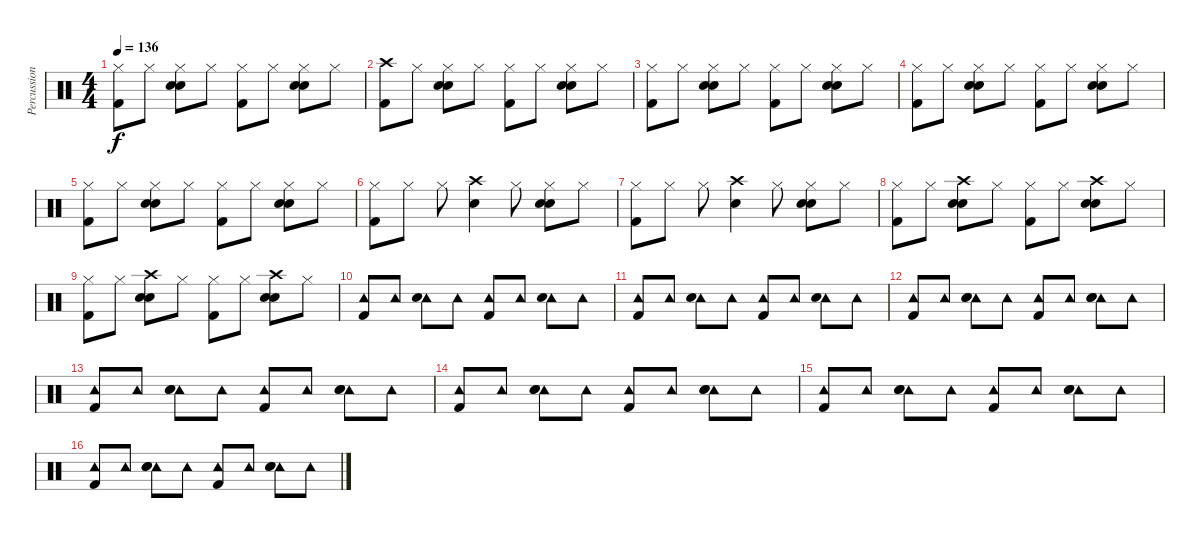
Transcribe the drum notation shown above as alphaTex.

\track ("Percussion" "Percussion") {instrument percussion}
\staff {score}
\articulation defaults
\ts (4 4)
\tempo 136
\clef neutral
\ks c
("Hi-Hat (closed)" "Kick (hit) 2").8{dy f} "Hi-Hat (closed)".8 ("Hi-Hat (closed)" "Snare (hit) 2" "Hand Clap (hit)").8 "Hi-Hat (closed)".8 ("Hi-Hat (closed)" "Kick (hit) 2").8 "Hi-Hat (closed)".8 ("Hi-Hat (closed)" "Snare (hit) 2" "Hand Clap (hit)").8 "Hi-Hat (closed)".8 |
("Crash high (hit)" "Kick (hit) 2").8 "Hi-Hat (closed)".8 ("Hi-Hat (closed)" "Snare (hit) 2" "Hand Clap (hit)").8 "Hi-Hat (closed)".8 ("Hi-Hat (closed)" "Kick (hit) 2").8 "Hi-Hat (closed)".8 ("Hi-Hat (closed)" "Snare (hit) 2" "Hand Clap (hit)").8 "Hi-Hat (closed)".8 |
("Hi-Hat (closed)" "Kick (hit) 2").8 "Hi-Hat (closed)".8 ("Hi-Hat (closed)" "Snare (hit) 2" "Hand Clap (hit)").8 "Hi-Hat (closed)".8 ("Hi-Hat (closed)" "Kick (hit) 2").8 "Hi-Hat (closed)".8 ("Hi-Hat (closed)" "Snare (hit) 2" "Hand Clap (hit)").8 "Hi-Hat (closed)".8 |
("Hi-Hat (closed)" "Kick (hit) 2").8 "Hi-Hat (closed)".8 ("Hi-Hat (closed)" "Snare (hit) 2" "Hand Clap (hit)").8 "Hi-Hat (closed)".8 ("Hi-Hat (closed)" "Kick (hit) 2").8 "Hi-Hat (closed)".8 ("Hi-Hat (closed)" "Snare (hit) 2" "Hand Clap (hit)").8 "Hi-Hat (closed)".8 |
("Hi-Hat (closed)" "Kick (hit) 2").8 "Hi-Hat (closed)".8 ("Hi-Hat (closed)" "Snare (hit) 2" "Hand Clap (hit)").8 "Hi-Hat (closed)".8 ("Hi-Hat (closed)" "Kick (hit) 2").8 "Hi-Hat (closed)".8 ("Hi-Hat (closed)" "Snare (hit) 2" "Hand Clap (hit)").8 "Hi-Hat (closed)".8 |
("Hi-Hat (closed)" "Kick (hit) 2").8 "Hi-Hat (closed)".8 "Hi-Hat (closed)".8 ("Crash high (hit)" "Snare (hit) 2").4 "Hi-Hat (closed)".8 ("Hi-Hat (closed)" "Snare (hit) 2" "Hand Clap (hit)").8 "Hi-Hat (closed)".8 |
("Hi-Hat (closed)" "Kick (hit) 2").8 "Hi-Hat (closed)".8 "Hi-Hat (closed)".8 ("Crash high (hit)" "Snare (hit) 2").4 "Hi-Hat (closed)".8 ("Hi-Hat (closed)" "Snare (hit) 2" "Hand Clap (hit)").8 "Hi-Hat (closed)".8 |
("Hi-Hat (closed)" "Kick (hit) 2").8 "Hi-Hat (closed)".8 ("Crash high (hit)" "Snare (hit) 2" "Hand Clap (hit)").8 "Hi-Hat (closed)".8 ("Hi-Hat (closed)" "Kick (hit) 2").8 "Hi-Hat (closed)".8 ("Crash high (hit)" "Snare (hit) 2" "Hand Clap (hit)").8 "Hi-Hat (closed)".8 |
("Hi-Hat (closed)" "Kick (hit) 2").8 "Hi-Hat (closed)".8 ("Crash high (hit)" "Snare (hit) 2" "Hand Clap (hit)").8 "Hi-Hat (closed)".8 ("Hi-Hat (closed)" "Kick (hit) 2").8 "Hi-Hat (closed)".8 ("Crash high (hit)" "Snare (hit) 2" "Hand Clap (hit)").8 "Hi-Hat (closed)".8 |
("Tambourine (hit)" "Kick (hit) 2").8 "Tambourine (hit)".8 ("Tambourine (hit)" "Snare (hit) 2").8 "Tambourine (hit)".8 ("Tambourine (hit)" "Kick (hit) 2").8 "Tambourine (hit)".8 ("Tambourine (hit)" "Snare (hit) 2").8 "Tambourine (hit)".8 |
("Tambourine (hit)" "Kick (hit) 2").8 "Tambourine (hit)".8 ("Tambourine (hit)" "Snare (hit) 2").8 "Tambourine (hit)".8 ("Tambourine (hit)" "Kick (hit) 2").8 "Tambourine (hit)".8 ("Tambourine (hit)" "Snare (hit) 2").8 "Tambourine (hit)".8 |
("Tambourine (hit)" "Kick (hit) 2").8 "Tambourine (hit)".8 ("Tambourine (hit)" "Snare (hit) 2" "Hand Clap (hit)").8 "Tambourine (hit)".8 ("Tambourine (hit)" "Kick (hit) 2").8 "Tambourine (hit)".8 ("Tambourine (hit)" "Snare (hit) 2" "Hand Clap (hit)").8 "Tambourine (hit)".8 |
("Tambourine (hit)" "Kick (hit) 2").8 "Tambourine (hit)".8 ("Tambourine (hit)" "Snare (hit) 2" "Hand Clap (hit)").8 "Tambourine (hit)".8 ("Tambourine (hit)" "Kick (hit) 2").8 "Tambourine (hit)".8 ("Tambourine (hit)" "Snare (hit) 2" "Hand Clap (hit)").8 "Tambourine (hit)".8 |
("Tambourine (hit)" "Kick (hit) 2").8 "Tambourine (hit)".8 ("Tambourine (hit)" "Snare (hit) 2" "Hand Clap (hit)").8 "Tambourine (hit)".8 ("Tambourine (hit)" "Kick (hit) 2").8 "Tambourine (hit)".8 ("Tambourine (hit)" "Snare (hit) 2" "Hand Clap (hit)").8 "Tambourine (hit)".8 |
("Tambourine (hit)" "Kick (hit) 2").8 "Tambourine (hit)".8 ("Tambourine (hit)" "Snare (hit) 2" "Hand Clap (hit)").8 "Tambourine (hit)".8 ("Tambourine (hit)" "Kick (hit) 2").8 "Tambourine (hit)".8 ("Tambourine (hit)" "Snare (hit) 2" "Hand Clap (hit)").8 "Tambourine (hit)".8 |
("Tambourine (hit)" "Kick (hit) 2").8 "Tambourine (hit)".8 ("Tambourine (hit)" "Snare (hit) 2" "Hand Clap (hit)").8 "Tambourine (hit)".8 ("Tambourine (hit)" "Kick (hit) 2").8 "Tambourine (hit)".8 ("Tambourine (hit)" "Snare (hit) 2" "Hand Clap (hit)").8 "Tambourine (hit)".8
